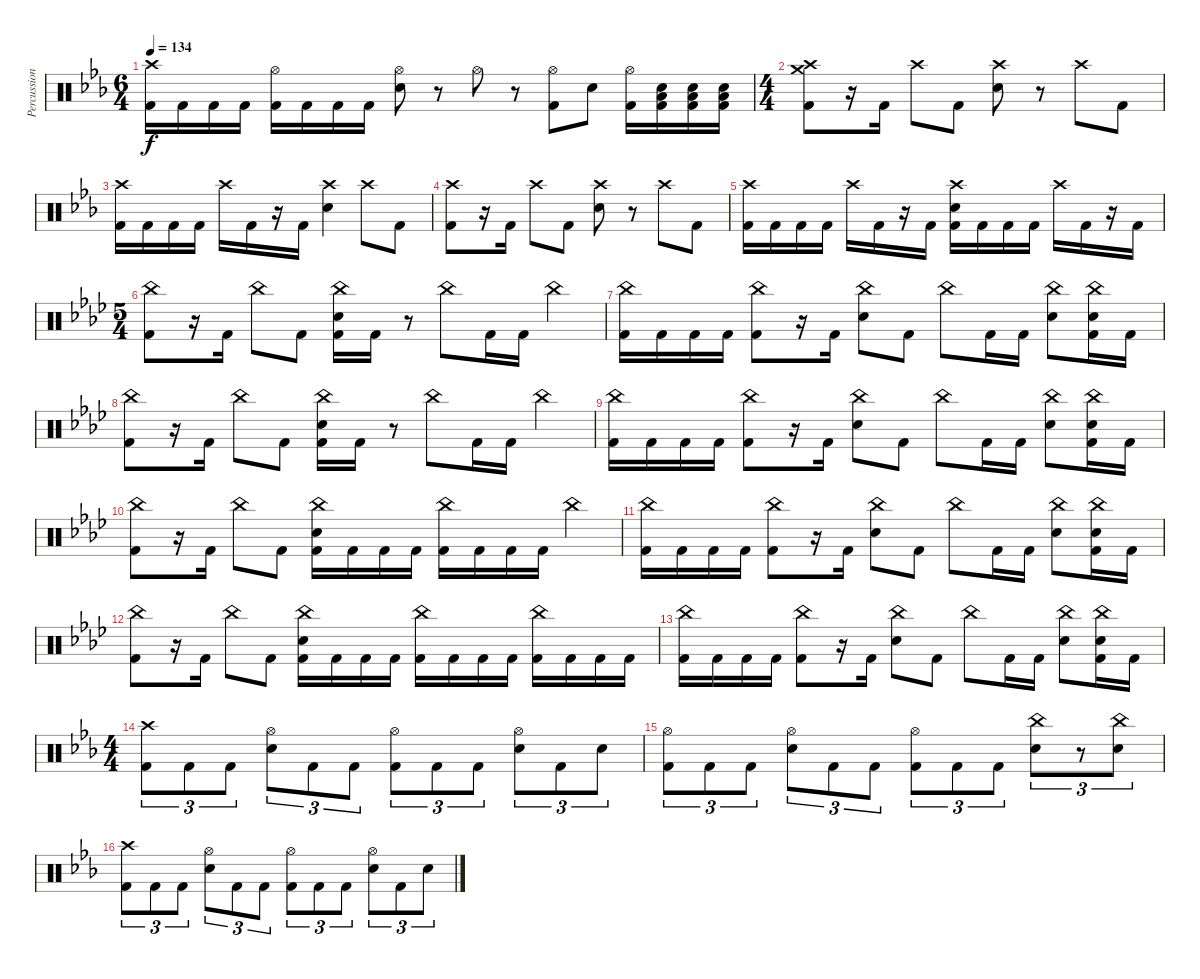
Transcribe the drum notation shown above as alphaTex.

\track ("Percussion" "Percussion") {instrument percussion}
\staff {score}
\articulation defaults
\ts (6 4)
\tempo 134
\clef neutral
\ks eb
("Crash high (hit)" "Kick (hit) 2").16{dy f} "Kick (hit) 2".16 "Kick (hit) 2".16 "Kick (hit) 2".16 ("Hi-Hat (open)" "Kick (hit) 2").16 "Kick (hit) 2".16 "Kick (hit) 2".16 "Kick (hit) 2".16 ("Hi-Hat (open)" "Electric Snare (hit)").8 r.8 "Hi-Hat (open)".8 r.8 ("Hi-Hat (open)" "Kick (hit) 2").8 "Electric Snare (hit)".8 ("Hi-Hat (open)" "Kick (hit) 2").16 ("Low Tom (hit)" "Electric Snare (hit)" "Kick (hit) 2").16 ("Low Tom (hit)" "Electric Snare (hit)" "Kick (hit) 2").16 ("Low Tom (hit)" "Electric Snare (hit)" "Kick (hit) 2").16 |
\ts (4 4)
("Crash high (hit)" "Crash medium (hit)" "Kick (hit) 2").8 r.16 "Kick (hit) 2".16 "Crash high (hit)".8 "Kick (hit) 2".8 ("Crash high (hit)" "Electric Snare (hit)").8 r.8 "Crash high (hit)".8 "Kick (hit) 2".8 |
("Crash high (hit)" "Kick (hit) 2").16 "Kick (hit) 2".16 "Kick (hit) 2".16 "Kick (hit) 2".16 "Crash high (hit)".16 "Kick (hit) 2".16 r.16 "Kick (hit) 2".16 ("Crash high (hit)" "Electric Snare (hit)").4 "Crash high (hit)".8 "Kick (hit) 2".8 |
("Crash high (hit)" "Kick (hit) 2").8 r.16 "Kick (hit) 2".16 "Crash high (hit)".8 "Kick (hit) 2".8 ("Crash high (hit)" "Electric Snare (hit)").8 r.8 "Crash high (hit)".8 "Kick (hit) 2".8 |
("Crash high (hit)" "Kick (hit) 2").16 "Kick (hit) 2".16 "Kick (hit) 2".16 "Kick (hit) 2".16 "Crash high (hit)".16 "Kick (hit) 2".16 r.16 "Kick (hit) 2".16 ("Crash high (hit)" "Electric Snare (hit)" "Kick (hit) 2").16 "Kick (hit) 2".16 "Kick (hit) 2".16 "Kick (hit) 2".16 "Crash high (hit)".16 "Kick (hit) 2".16 r.16 "Kick (hit) 2".16 |
\ts (5 4)
\ks ab
("China (hit)" "Kick (hit) 2").8 r.16 "Kick (hit) 2".16 "China (hit)".8 "Kick (hit) 2".8 ("China (hit)" "Electric Snare (hit)" "Kick (hit) 2").16 "Kick (hit) 2".16 r.8 "China (hit)".8 "Kick (hit) 2".16 "Kick (hit) 2".16 "China (hit)".4 |
("China (hit)" "Kick (hit) 2").16 "Kick (hit) 2".16 "Kick (hit) 2".16 "Kick (hit) 2".16 ("China (hit)" "Kick (hit) 2").8 r.16 "Kick (hit) 2".16 ("China (hit)" "Electric Snare (hit)").8 "Kick (hit) 2".8 "China (hit)".8 "Kick (hit) 2".16 "Kick (hit) 2".16 ("China (hit)" "Electric Snare (hit)").8 ("China (hit)" "Electric Snare (hit)" "Kick (hit) 2").16 "Kick (hit) 2".16 |
("China (hit)" "Kick (hit) 2").8 r.16 "Kick (hit) 2".16 "China (hit)".8 "Kick (hit) 2".8 ("China (hit)" "Electric Snare (hit)" "Kick (hit) 2").16 "Kick (hit) 2".16 r.8 "China (hit)".8 "Kick (hit) 2".16 "Kick (hit) 2".16 "China (hit)".4 |
("China (hit)" "Kick (hit) 2").16 "Kick (hit) 2".16 "Kick (hit) 2".16 "Kick (hit) 2".16 ("China (hit)" "Kick (hit) 2").8 r.16 "Kick (hit) 2".16 ("China (hit)" "Electric Snare (hit)").8 "Kick (hit) 2".8 "China (hit)".8 "Kick (hit) 2".16 "Kick (hit) 2".16 ("China (hit)" "Electric Snare (hit)").8 ("China (hit)" "Electric Snare (hit)" "Kick (hit) 2").16 "Kick (hit) 2".16 |
("China (hit)" "Kick (hit) 2").8 r.16 "Kick (hit) 2".16 "China (hit)".8 "Kick (hit) 2".8 ("China (hit)" "Electric Snare (hit)" "Kick (hit) 2").16 "Kick (hit) 2".16 "Kick (hit) 2".16 "Kick (hit) 2".16 ("China (hit)" "Kick (hit) 2").16 "Kick (hit) 2".16 "Kick (hit) 2".16 "Kick (hit) 2".16 "China (hit)".4 |
("China (hit)" "Kick (hit) 2").16 "Kick (hit) 2".16 "Kick (hit) 2".16 "Kick (hit) 2".16 ("China (hit)" "Kick (hit) 2").8 r.16 "Kick (hit) 2".16 ("China (hit)" "Electric Snare (hit)").8 "Kick (hit) 2".8 "China (hit)".8 "Kick (hit) 2".16 "Kick (hit) 2".16 ("China (hit)" "Electric Snare (hit)").8 ("China (hit)" "Electric Snare (hit)" "Kick (hit) 2").16 "Kick (hit) 2".16 |
("China (hit)" "Kick (hit) 2").8 r.16 "Kick (hit) 2".16 "China (hit)".8 "Kick (hit) 2".8 ("China (hit)" "Electric Snare (hit)" "Kick (hit) 2").16 "Kick (hit) 2".16 "Kick (hit) 2".16 "Kick (hit) 2".16 ("China (hit)" "Kick (hit) 2").16 "Kick (hit) 2".16 "Kick (hit) 2".16 "Kick (hit) 2".16 ("China (hit)" "Kick (hit) 2").16 "Kick (hit) 2".16 "Kick (hit) 2".16 "Kick (hit) 2".16 |
("China (hit)" "Kick (hit) 2").16 "Kick (hit) 2".16 "Kick (hit) 2".16 "Kick (hit) 2".16 ("China (hit)" "Kick (hit) 2").8 r.16 "Kick (hit) 2".16 ("China (hit)" "Electric Snare (hit)").8 "Kick (hit) 2".8 "China (hit)".8 "Kick (hit) 2".16 "Kick (hit) 2".16 ("China (hit)" "Electric Snare (hit)").8 ("China (hit)" "Electric Snare (hit)" "Kick (hit) 2").16 "Kick (hit) 2".16 |
\ts (4 4)
\ks eb
("Crash high (hit)" "Kick (hit) 2").8{tu (3 2)} "Kick (hit) 2".8{tu (3 2)} "Kick (hit) 2".8{tu (3 2)} ("Hi-Hat (open)" "Electric Snare (hit)").8{tu (3 2)} "Kick (hit) 2".8{tu (3 2)} "Kick (hit) 2".8{tu (3 2)} ("Hi-Hat (open)" "Kick (hit) 2").8{tu (3 2)} "Kick (hit) 2".8{tu (3 2)} "Kick (hit) 2".8{tu (3 2)} ("Hi-Hat (open)" "Electric Snare (hit)").8{tu (3 2)} "Kick (hit) 2".8{tu (3 2)} "Electric Snare (hit)".8{tu (3 2)} |
("Hi-Hat (open)" "Kick (hit) 2").8{tu (3 2)} "Kick (hit) 2".8{tu (3 2)} "Kick (hit) 2".8{tu (3 2)} ("Hi-Hat (open)" "Electric Snare (hit)").8{tu (3 2)} "Kick (hit) 2".8{tu (3 2)} "Kick (hit) 2".8{tu (3 2)} ("Hi-Hat (open)" "Kick (hit) 2").8{tu (3 2)} "Kick (hit) 2".8{tu (3 2)} "Kick (hit) 2".8{tu (3 2)} ("China (hit)" "Electric Snare (hit)").8{tu (3 2)} r.8{tu (3 2)} ("China (hit)" "Electric Snare (hit)").8{tu (3 2)} |
("Crash high (hit)" "Kick (hit) 2").8{tu (3 2)} "Kick (hit) 2".8{tu (3 2)} "Kick (hit) 2".8{tu (3 2)} ("Hi-Hat (open)" "Electric Snare (hit)").8{tu (3 2)} "Kick (hit) 2".8{tu (3 2)} "Kick (hit) 2".8{tu (3 2)} ("Hi-Hat (open)" "Kick (hit) 2").8{tu (3 2)} "Kick (hit) 2".8{tu (3 2)} "Kick (hit) 2".8{tu (3 2)} ("Hi-Hat (open)" "Electric Snare (hit)").8{tu (3 2)} "Kick (hit) 2".8{tu (3 2)} "Electric Snare (hit)".8{tu (3 2)}
